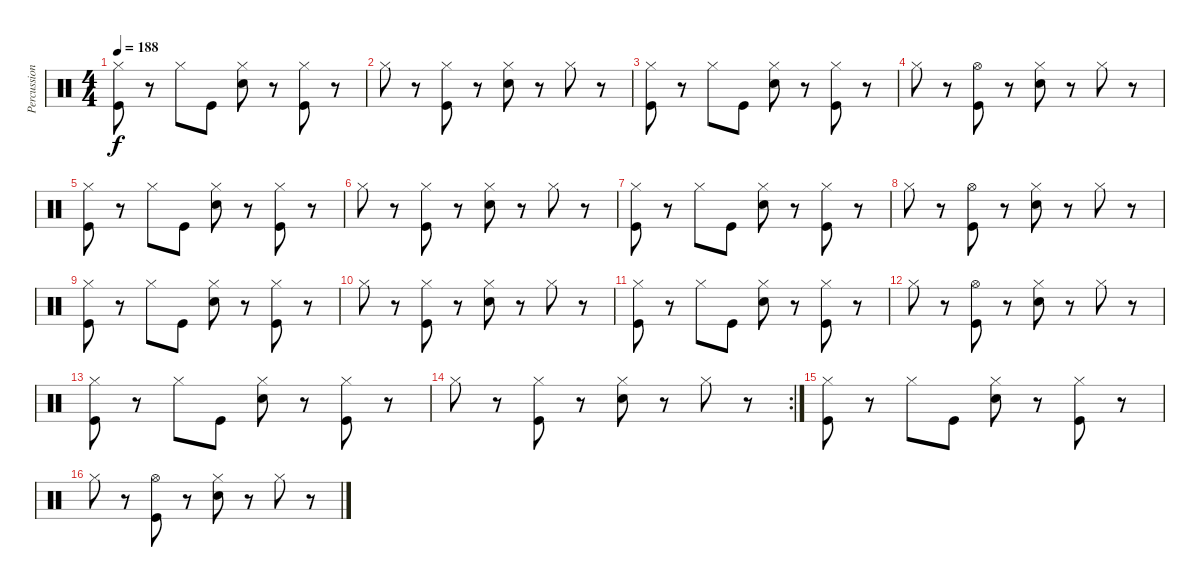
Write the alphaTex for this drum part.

\track ("Percussioni" "Percussion") {instrument percussion}
\staff {score}
\articulation defaults
\ts (4 4)
\tempo 188
\clef neutral
\ks c
("Hi-Hat (closed)" "Kick (hit)").8{dy f} r.8 "Hi-Hat (closed)".8 "Kick (hit)".8 ("Hi-Hat (closed)" "Snare (hit) 2").8 r.8 ("Hi-Hat (closed)" "Kick (hit)").8 r.8 |
"Hi-Hat (closed)".8 r.8 ("Hi-Hat (closed)" "Kick (hit)").8 r.8 ("Hi-Hat (closed)" "Snare (hit) 2").8 r.8 "Hi-Hat (closed)".8 r.8 |
("Hi-Hat (closed)" "Kick (hit)").8 r.8 "Hi-Hat (closed)".8 "Kick (hit)".8 ("Hi-Hat (closed)" "Snare (hit) 2").8 r.8 ("Hi-Hat (closed)" "Kick (hit)").8 r.8 |
"Hi-Hat (closed)".8 r.8 ("Hi-Hat (open)" "Kick (hit)").8 r.8 ("Hi-Hat (closed)" "Snare (hit) 2").8 r.8 "Hi-Hat (closed)".8 r.8 |
("Hi-Hat (closed)" "Kick (hit)").8 r.8 "Hi-Hat (closed)".8 "Kick (hit)".8 ("Hi-Hat (closed)" "Snare (hit) 2").8 r.8 ("Hi-Hat (closed)" "Kick (hit)").8 r.8 |
"Hi-Hat (closed)".8 r.8 ("Hi-Hat (closed)" "Kick (hit)").8 r.8 ("Hi-Hat (closed)" "Snare (hit) 2").8 r.8 "Hi-Hat (closed)".8 r.8 |
("Hi-Hat (closed)" "Kick (hit)").8 r.8 "Hi-Hat (closed)".8 "Kick (hit)".8 ("Hi-Hat (closed)" "Snare (hit) 2").8 r.8 ("Hi-Hat (closed)" "Kick (hit)").8 r.8 |
"Hi-Hat (closed)".8 r.8 ("Hi-Hat (open)" "Kick (hit)").8 r.8 ("Hi-Hat (closed)" "Snare (hit) 2").8 r.8 "Hi-Hat (closed)".8 r.8 |
("Hi-Hat (closed)" "Kick (hit)").8 r.8 "Hi-Hat (closed)".8 "Kick (hit)".8 ("Hi-Hat (closed)" "Snare (hit) 2").8 r.8 ("Hi-Hat (closed)" "Kick (hit)").8 r.8 |
"Hi-Hat (closed)".8 r.8 ("Hi-Hat (closed)" "Kick (hit)").8 r.8 ("Hi-Hat (closed)" "Snare (hit) 2").8 r.8 "Hi-Hat (closed)".8 r.8 |
("Hi-Hat (closed)" "Kick (hit)").8 r.8 "Hi-Hat (closed)".8 "Kick (hit)".8 ("Hi-Hat (closed)" "Snare (hit) 2").8 r.8 ("Hi-Hat (closed)" "Kick (hit)").8 r.8 |
"Hi-Hat (closed)".8 r.8 ("Hi-Hat (open)" "Kick (hit)").8 r.8 ("Hi-Hat (closed)" "Snare (hit) 2").8 r.8 "Hi-Hat (closed)".8 r.8 |
("Hi-Hat (closed)" "Kick (hit)").8 r.8 "Hi-Hat (closed)".8 "Kick (hit)".8 ("Hi-Hat (closed)" "Snare (hit) 2").8 r.8 ("Hi-Hat (closed)" "Kick (hit)").8 r.8 |
\rc 2 "Hi-Hat (closed)".8
r.8 ("Hi-Hat (closed)" "Kick (hit)").8 r.8 ("Hi-Hat (closed)" "Snare (hit) 2").8 r.8 "Hi-Hat (closed)".8 r.8 |
("Hi-Hat (closed)" "Kick (hit)").8 r.8 "Hi-Hat (closed)".8 "Kick (hit)".8 ("Hi-Hat (closed)" "Snare (hit) 2").8 r.8 ("Hi-Hat (closed)" "Kick (hit)").8 r.8 |
"Hi-Hat (closed)".8 r.8 ("Hi-Hat (open)" "Kick (hit)").8 r.8 ("Hi-Hat (closed)" "Snare (hit) 2").8 r.8 "Hi-Hat (closed)".8 r.8
